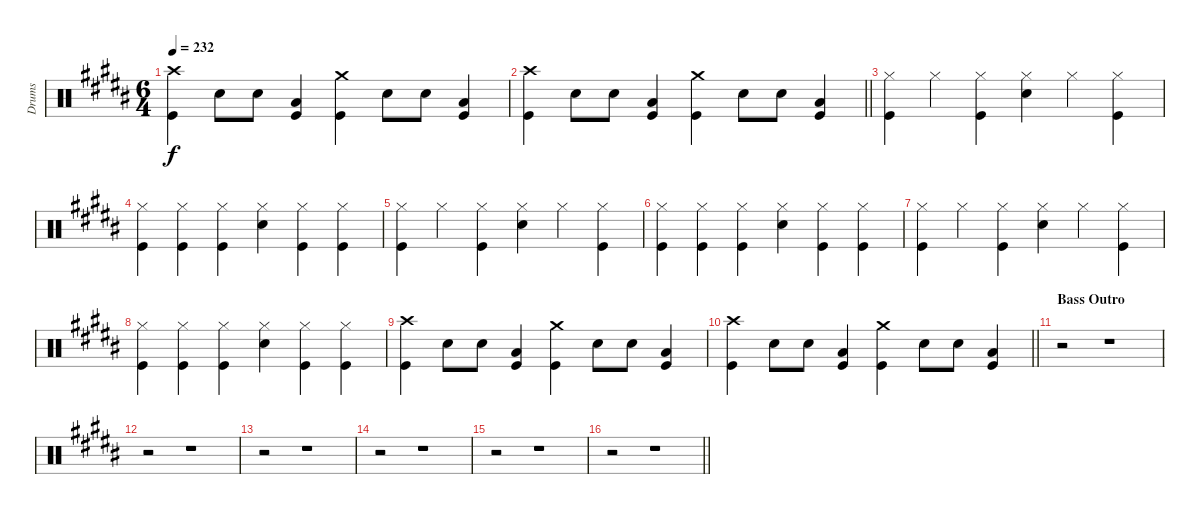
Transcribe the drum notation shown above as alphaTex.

\track ("Drums" "Drums") {instrument percussion}
\staff {score}
\articulation defaults
\ts (6 4)
\tempo 232
\clef neutral
\ks b
("Crash high (hit)" "Kick (hit)").4{dy f volume 4} "Snare (hit) 2".8 "Snare (hit) 2".8 ("Low Floor Tom (hit)" "Kick (hit)").4 ("Crash medium (hit)" "Kick (hit)").4 "Snare (hit) 2".8 "Snare (hit) 2".8 ("Low Floor Tom (hit)" "Kick (hit)").4 |
\barLineRight lightlight
("Crash high (hit)" "Kick (hit)").4 "Snare (hit) 2".8 "Snare (hit) 2".8 ("Low Floor Tom (hit)" "Kick (hit)").4 ("Crash medium (hit)" "Kick (hit)").4 "Snare (hit) 2".8 "Snare (hit) 2".8 ("Low Floor Tom (hit)" "Kick (hit)").4 |
("Hi-Hat (closed)" "Kick (hit)").4{volume 2} "Hi-Hat (closed)".4 ("Hi-Hat (closed)" "Kick (hit)").4 ("Hi-Hat (closed)" "Snare (hit) 2").4 "Hi-Hat (closed)".4 ("Hi-Hat (closed)" "Kick (hit)").4 |
("Hi-Hat (closed)" "Kick (hit)").4 ("Hi-Hat (closed)" "Kick (hit)").4 ("Hi-Hat (closed)" "Kick (hit)").4 ("Hi-Hat (closed)" "Snare (hit) 2").4 ("Hi-Hat (closed)" "Kick (hit)").4 ("Hi-Hat (closed)" "Kick (hit)").4 |
("Hi-Hat (closed)" "Kick (hit)").4{volume 4} "Hi-Hat (closed)".4 ("Hi-Hat (closed)" "Kick (hit)").4 ("Hi-Hat (closed)" "Snare (hit) 2").4 "Hi-Hat (closed)".4 ("Hi-Hat (closed)" "Kick (hit)").4 |
("Hi-Hat (closed)" "Kick (hit)").4 ("Hi-Hat (closed)" "Kick (hit)").4 ("Hi-Hat (closed)" "Kick (hit)").4 ("Hi-Hat (closed)" "Snare (hit) 2").4 ("Hi-Hat (closed)" "Kick (hit)").4 ("Hi-Hat (closed)" "Kick (hit)").4 |
("Hi-Hat (closed)" "Kick (hit)").4{volume 1} "Hi-Hat (closed)".4 ("Hi-Hat (closed)" "Kick (hit)").4 ("Hi-Hat (closed)" "Snare (hit) 2").4 "Hi-Hat (closed)".4 ("Hi-Hat (closed)" "Kick (hit)").4 |
("Hi-Hat (closed)" "Kick (hit)").4 ("Hi-Hat (closed)" "Kick (hit)").4 ("Hi-Hat (closed)" "Kick (hit)").4 ("Hi-Hat (closed)" "Snare (hit) 2").4 ("Hi-Hat (closed)" "Kick (hit)").4{volume 0} ("Hi-Hat (closed)" "Kick (hit)").4 |
("Crash high (hit)" "Kick (hit)").4 "Snare (hit) 2".8 "Snare (hit) 2".8 ("Low Floor Tom (hit)" "Kick (hit)").4 ("Crash medium (hit)" "Kick (hit)").4 "Snare (hit) 2".8 "Snare (hit) 2".8 ("Low Floor Tom (hit)" "Kick (hit)").4 |
\barLineRight lightlight
("Crash high (hit)" "Kick (hit)").4 "Snare (hit) 2".8 "Snare (hit) 2".8 ("Low Floor Tom (hit)" "Kick (hit)").4 ("Crash medium (hit)" "Kick (hit)").4 "Snare (hit) 2".8 "Snare (hit) 2".8 ("Low Floor Tom (hit)" "Kick (hit)").4 |
\section ("" "Bass Outro")
r.2 r.1 |
r.2 r.1 |
r.2 r.1 |
r.2 r.1 |
r.2 r.1 |
\barLineRight lightlight
r.2 r.1
